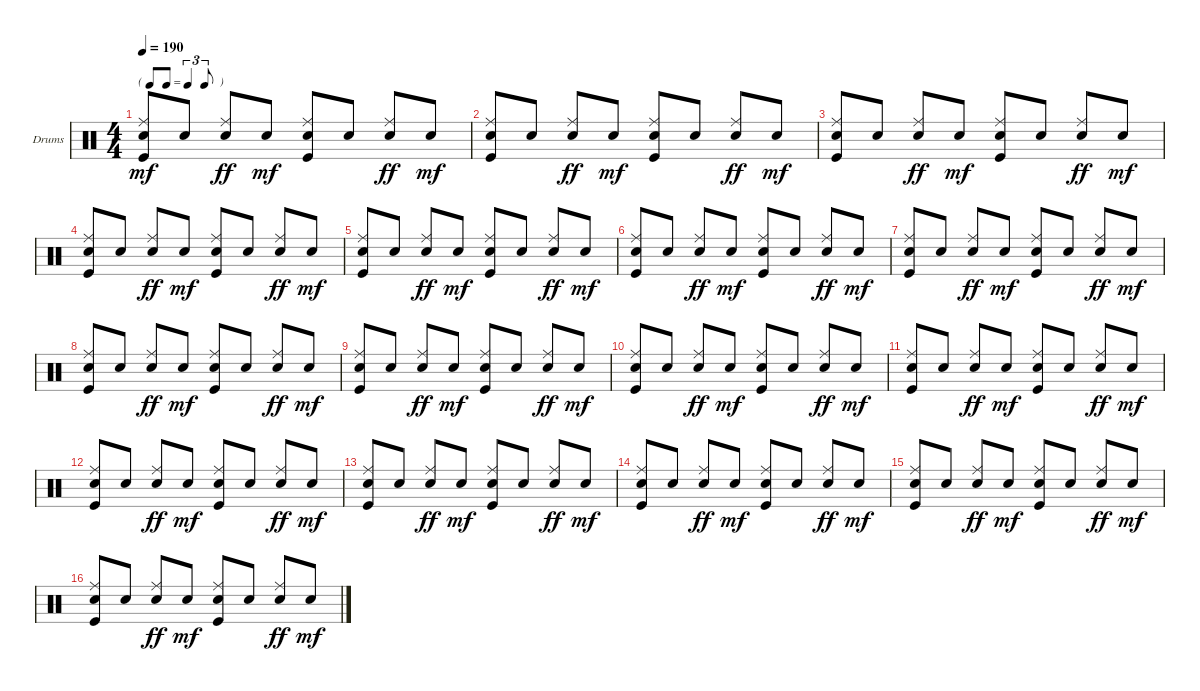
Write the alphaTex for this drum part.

\defaultSystemsLayout 4
\bracketExtendMode groupsimilarinstruments
\firstSystemTrackNameOrientation horizontal
\otherSystemsTrackNameOrientation horizontal
\track ("Drumkit" "Drums") {instrument percussion}
\staff {score}
\articulation defaults
\ts (4 4)
\tf triplet8th
\tempo 190
\clef neutral
\scale
0.333333
\ks c
("Kick (hit)" "Snare (hit) 2" "Ride (middle)").8{dy mf beam invert} "Snare (hit) 2".8 ("Snare (hit) 2" "Ride (middle)").8{dy ff beam invert} "Snare (hit) 2".8{dy mf} ("Kick (hit)" "Snare (hit) 2" "Ride (middle)").8{beam invert} "Snare (hit) 2".8 ("Snare (hit) 2" "Ride (middle)").8{dy ff beam invert} "Snare (hit) 2".8{dy mf} |
\scale
0.333333 ("Kick (hit)" "Snare (hit) 2" "Ride (middle)").8{beam invert} "Snare (hit) 2".8 ("Snare (hit) 2" "Ride (middle)").8{dy ff beam invert} "Snare (hit) 2".8{dy mf} ("Kick (hit)" "Snare (hit) 2" "Ride (middle)").8{beam invert} "Snare (hit) 2".8 ("Snare (hit) 2" "Ride (middle)").8{dy ff beam invert} "Snare (hit) 2".8{dy mf} |
\scale
0.333333 ("Kick (hit)" "Snare (hit) 2" "Ride (middle)").8{beam invert} "Snare (hit) 2".8 ("Snare (hit) 2" "Ride (middle)").8{dy ff beam invert} "Snare (hit) 2".8{dy mf} ("Kick (hit)" "Snare (hit) 2" "Ride (middle)").8{beam invert} "Snare (hit) 2".8 ("Snare (hit) 2" "Ride (middle)").8{dy ff beam invert} "Snare (hit) 2".8{dy mf} |
\scale
0.333333 ("Kick (hit)" "Snare (hit) 2" "Ride (middle)").8{beam invert} "Snare (hit) 2".8 ("Snare (hit) 2" "Ride (middle)").8{dy ff beam invert} "Snare (hit) 2".8{dy mf} ("Kick (hit)" "Snare (hit) 2" "Ride (middle)").8{beam invert} "Snare (hit) 2".8 ("Snare (hit) 2" "Ride (middle)").8{dy ff beam invert} "Snare (hit) 2".8{dy mf} |
\scale
0.333333 ("Kick (hit)" "Snare (hit) 2" "Ride (middle)").8{beam invert} "Snare (hit) 2".8 ("Snare (hit) 2" "Ride (middle)").8{dy ff beam invert} "Snare (hit) 2".8{dy mf} ("Kick (hit)" "Snare (hit) 2" "Ride (middle)").8{beam invert} "Snare (hit) 2".8 ("Snare (hit) 2" "Ride (middle)").8{dy ff beam invert} "Snare (hit) 2".8{dy mf} |
("Kick (hit)" "Snare (hit) 2" "Ride (middle)").8{beam invert} "Snare (hit) 2".8 ("Snare (hit) 2" "Ride (middle)").8{dy ff beam invert} "Snare (hit) 2".8{dy mf} ("Kick (hit)" "Snare (hit) 2" "Ride (middle)").8{beam invert} "Snare (hit) 2".8 ("Snare (hit) 2" "Ride (middle)").8{dy ff beam invert} "Snare (hit) 2".8{dy mf} |
("Kick (hit)" "Snare (hit) 2" "Ride (middle)").8{beam invert} "Snare (hit) 2".8 ("Snare (hit) 2" "Ride (middle)").8{dy ff beam invert} "Snare (hit) 2".8{dy mf} ("Kick (hit)" "Snare (hit) 2" "Ride (middle)").8{beam invert} "Snare (hit) 2".8 ("Snare (hit) 2" "Ride (middle)").8{dy ff beam invert} "Snare (hit) 2".8{dy mf} |
("Kick (hit)" "Snare (hit) 2" "Ride (middle)").8{beam invert} "Snare (hit) 2".8 ("Snare (hit) 2" "Ride (middle)").8{dy ff beam invert} "Snare (hit) 2".8{dy mf} ("Kick (hit)" "Snare (hit) 2" "Ride (middle)").8{beam invert} "Snare (hit) 2".8 ("Snare (hit) 2" "Ride (middle)").8{dy ff beam invert} "Snare (hit) 2".8{dy mf} |
("Kick (hit)" "Snare (hit) 2" "Ride (middle)").8{beam invert} "Snare (hit) 2".8 ("Snare (hit) 2" "Ride (middle)").8{dy ff beam invert} "Snare (hit) 2".8{dy mf} ("Kick (hit)" "Snare (hit) 2" "Ride (middle)").8{beam invert} "Snare (hit) 2".8 ("Snare (hit) 2" "Ride (middle)").8{dy ff beam invert} "Snare (hit) 2".8{dy mf} |
("Kick (hit)" "Snare (hit) 2" "Ride (middle)").8{beam invert} "Snare (hit) 2".8 ("Snare (hit) 2" "Ride (middle)").8{dy ff beam invert} "Snare (hit) 2".8{dy mf} ("Kick (hit)" "Snare (hit) 2" "Ride (middle)").8{beam invert} "Snare (hit) 2".8 ("Snare (hit) 2" "Ride (middle)").8{dy ff beam invert} "Snare (hit) 2".8{dy mf} |
("Kick (hit)" "Snare (hit) 2" "Ride (middle)").8{beam invert} "Snare (hit) 2".8 ("Snare (hit) 2" "Ride (middle)").8{dy ff beam invert} "Snare (hit) 2".8{dy mf} ("Kick (hit)" "Snare (hit) 2" "Ride (middle)").8{beam invert} "Snare (hit) 2".8 ("Snare (hit) 2" "Ride (middle)").8{dy ff beam invert} "Snare (hit) 2".8{dy mf} |
("Kick (hit)" "Snare (hit) 2" "Ride (middle)").8{beam invert} "Snare (hit) 2".8 ("Snare (hit) 2" "Ride (middle)").8{dy ff beam invert} "Snare (hit) 2".8{dy mf} ("Kick (hit)" "Snare (hit) 2" "Ride (middle)").8{beam invert} "Snare (hit) 2".8 ("Snare (hit) 2" "Ride (middle)").8{dy ff beam invert} "Snare (hit) 2".8{dy mf} |
("Kick (hit)" "Snare (hit) 2" "Ride (middle)").8{beam invert} "Snare (hit) 2".8 ("Snare (hit) 2" "Ride (middle)").8{dy ff beam invert} "Snare (hit) 2".8{dy mf} ("Kick (hit)" "Snare (hit) 2" "Ride (middle)").8{beam invert} "Snare (hit) 2".8 ("Snare (hit) 2" "Ride (middle)").8{dy ff beam invert} "Snare (hit) 2".8{dy mf} |
("Kick (hit)" "Snare (hit) 2" "Ride (middle)").8{beam invert} "Snare (hit) 2".8 ("Snare (hit) 2" "Ride (middle)").8{dy ff beam invert} "Snare (hit) 2".8{dy mf} ("Kick (hit)" "Snare (hit) 2" "Ride (middle)").8{beam invert} "Snare (hit) 2".8 ("Snare (hit) 2" "Ride (middle)").8{dy ff beam invert} "Snare (hit) 2".8{dy mf} |
("Kick (hit)" "Snare (hit) 2" "Ride (middle)").8{beam invert} "Snare (hit) 2".8 ("Snare (hit) 2" "Ride (middle)").8{dy ff beam invert} "Snare (hit) 2".8{dy mf} ("Kick (hit)" "Snare (hit) 2" "Ride (middle)").8{beam invert} "Snare (hit) 2".8 ("Snare (hit) 2" "Ride (middle)").8{dy ff beam invert} "Snare (hit) 2".8{dy mf} |
("Kick (hit)" "Snare (hit) 2" "Ride (middle)").8{beam invert} "Snare (hit) 2".8 ("Snare (hit) 2" "Ride (middle)").8{dy ff beam invert} "Snare (hit) 2".8{dy mf} ("Kick (hit)" "Snare (hit) 2" "Ride (middle)").8{beam invert} "Snare (hit) 2".8 ("Snare (hit) 2" "Ride (middle)").8{dy ff beam invert} "Snare (hit) 2".8{dy mf}
